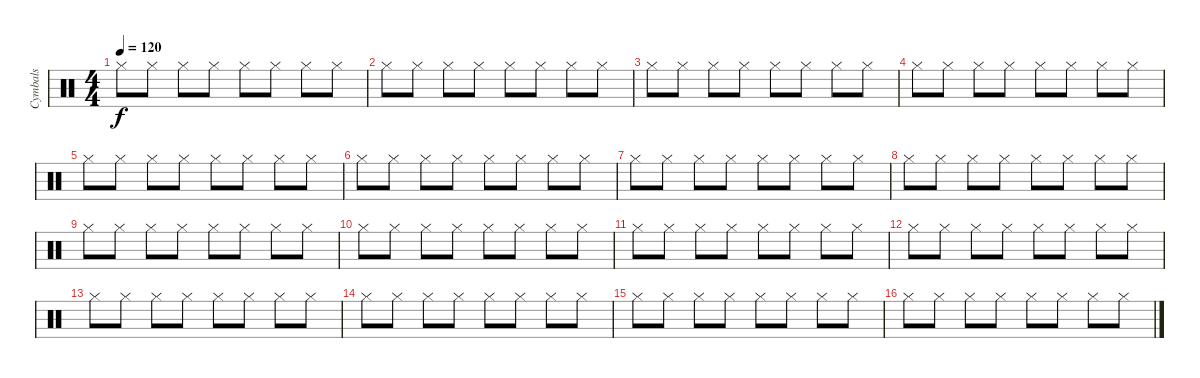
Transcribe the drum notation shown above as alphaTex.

\track ("Cymbals" "Cymbals") {instrument percussion}
\staff {score}
\articulation defaults
\ts (4 4)
\tempo 120
\clef neutral
\ks c "Hi-Hat (closed)".8{dy f} "Hi-Hat (closed)".8 "Hi-Hat (closed)".8 "Hi-Hat (closed)".8 "Hi-Hat (closed)".8 "Hi-Hat (closed)".8 "Hi-Hat (closed)".8 "Hi-Hat (closed)".8
|
"Hi-Hat (closed)".8 "Hi-Hat (closed)".8 "Hi-Hat (closed)".8 "Hi-Hat (closed)".8 "Hi-Hat (closed)".8 "Hi-Hat (closed)".8 "Hi-Hat (closed)".8 "Hi-Hat (closed)".8 |
"Hi-Hat (closed)".8 "Hi-Hat (closed)".8 "Hi-Hat (closed)".8 "Hi-Hat (closed)".8 "Hi-Hat (closed)".8 "Hi-Hat (closed)".8 "Hi-Hat (closed)".8 "Hi-Hat (closed)".8 |
"Hi-Hat (closed)".8 "Hi-Hat (closed)".8 "Hi-Hat (closed)".8 "Hi-Hat (closed)".8 "Hi-Hat (closed)".8 "Hi-Hat (closed)".8 "Hi-Hat (closed)".8 "Hi-Hat (closed)".8 |
"Hi-Hat (closed)".8 "Hi-Hat (closed)".8 "Hi-Hat (closed)".8 "Hi-Hat (closed)".8 "Hi-Hat (closed)".8 "Hi-Hat (closed)".8 "Hi-Hat (closed)".8 "Hi-Hat (closed)".8 |
"Hi-Hat (closed)".8 "Hi-Hat (closed)".8 "Hi-Hat (closed)".8 "Hi-Hat (closed)".8 "Hi-Hat (closed)".8 "Hi-Hat (closed)".8 "Hi-Hat (closed)".8 "Hi-Hat (closed)".8 |
"Hi-Hat (closed)".8 "Hi-Hat (closed)".8 "Hi-Hat (closed)".8 "Hi-Hat (closed)".8 "Hi-Hat (closed)".8 "Hi-Hat (closed)".8 "Hi-Hat (closed)".8 "Hi-Hat (closed)".8 |
"Hi-Hat (closed)".8 "Hi-Hat (closed)".8 "Hi-Hat (closed)".8 "Hi-Hat (closed)".8 "Hi-Hat (closed)".8 "Hi-Hat (closed)".8 "Hi-Hat (closed)".8 "Hi-Hat (closed)".8 |
"Hi-Hat (closed)".8 "Hi-Hat (closed)".8 "Hi-Hat (closed)".8 "Hi-Hat (closed)".8 "Hi-Hat (closed)".8 "Hi-Hat (closed)".8 "Hi-Hat (closed)".8 "Hi-Hat (closed)".8 |
"Hi-Hat (closed)".8 "Hi-Hat (closed)".8 "Hi-Hat (closed)".8 "Hi-Hat (closed)".8 "Hi-Hat (closed)".8 "Hi-Hat (closed)".8 "Hi-Hat (closed)".8 "Hi-Hat (closed)".8 |
"Hi-Hat (closed)".8 "Hi-Hat (closed)".8 "Hi-Hat (closed)".8 "Hi-Hat (closed)".8 "Hi-Hat (closed)".8 "Hi-Hat (closed)".8 "Hi-Hat (closed)".8 "Hi-Hat (closed)".8 |
"Hi-Hat (closed)".8 "Hi-Hat (closed)".8 "Hi-Hat (closed)".8 "Hi-Hat (closed)".8 "Hi-Hat (closed)".8 "Hi-Hat (closed)".8 "Hi-Hat (closed)".8 "Hi-Hat (closed)".8 |
"Hi-Hat (closed)".8 "Hi-Hat (closed)".8 "Hi-Hat (closed)".8 "Hi-Hat (closed)".8 "Hi-Hat (closed)".8 "Hi-Hat (closed)".8 "Hi-Hat (closed)".8 "Hi-Hat (closed)".8 |
"Hi-Hat (closed)".8 "Hi-Hat (closed)".8 "Hi-Hat (closed)".8 "Hi-Hat (closed)".8 "Hi-Hat (closed)".8 "Hi-Hat (closed)".8 "Hi-Hat (closed)".8 "Hi-Hat (closed)".8 |
"Hi-Hat (closed)".8 "Hi-Hat (closed)".8 "Hi-Hat (closed)".8 "Hi-Hat (closed)".8 "Hi-Hat (closed)".8 "Hi-Hat (closed)".8 "Hi-Hat (closed)".8 "Hi-Hat (closed)".8 |
"Hi-Hat (closed)".8 "Hi-Hat (closed)".8 "Hi-Hat (closed)".8 "Hi-Hat (closed)".8 "Hi-Hat (closed)".8 "Hi-Hat (closed)".8 "Hi-Hat (closed)".8 "Hi-Hat (closed)".8
